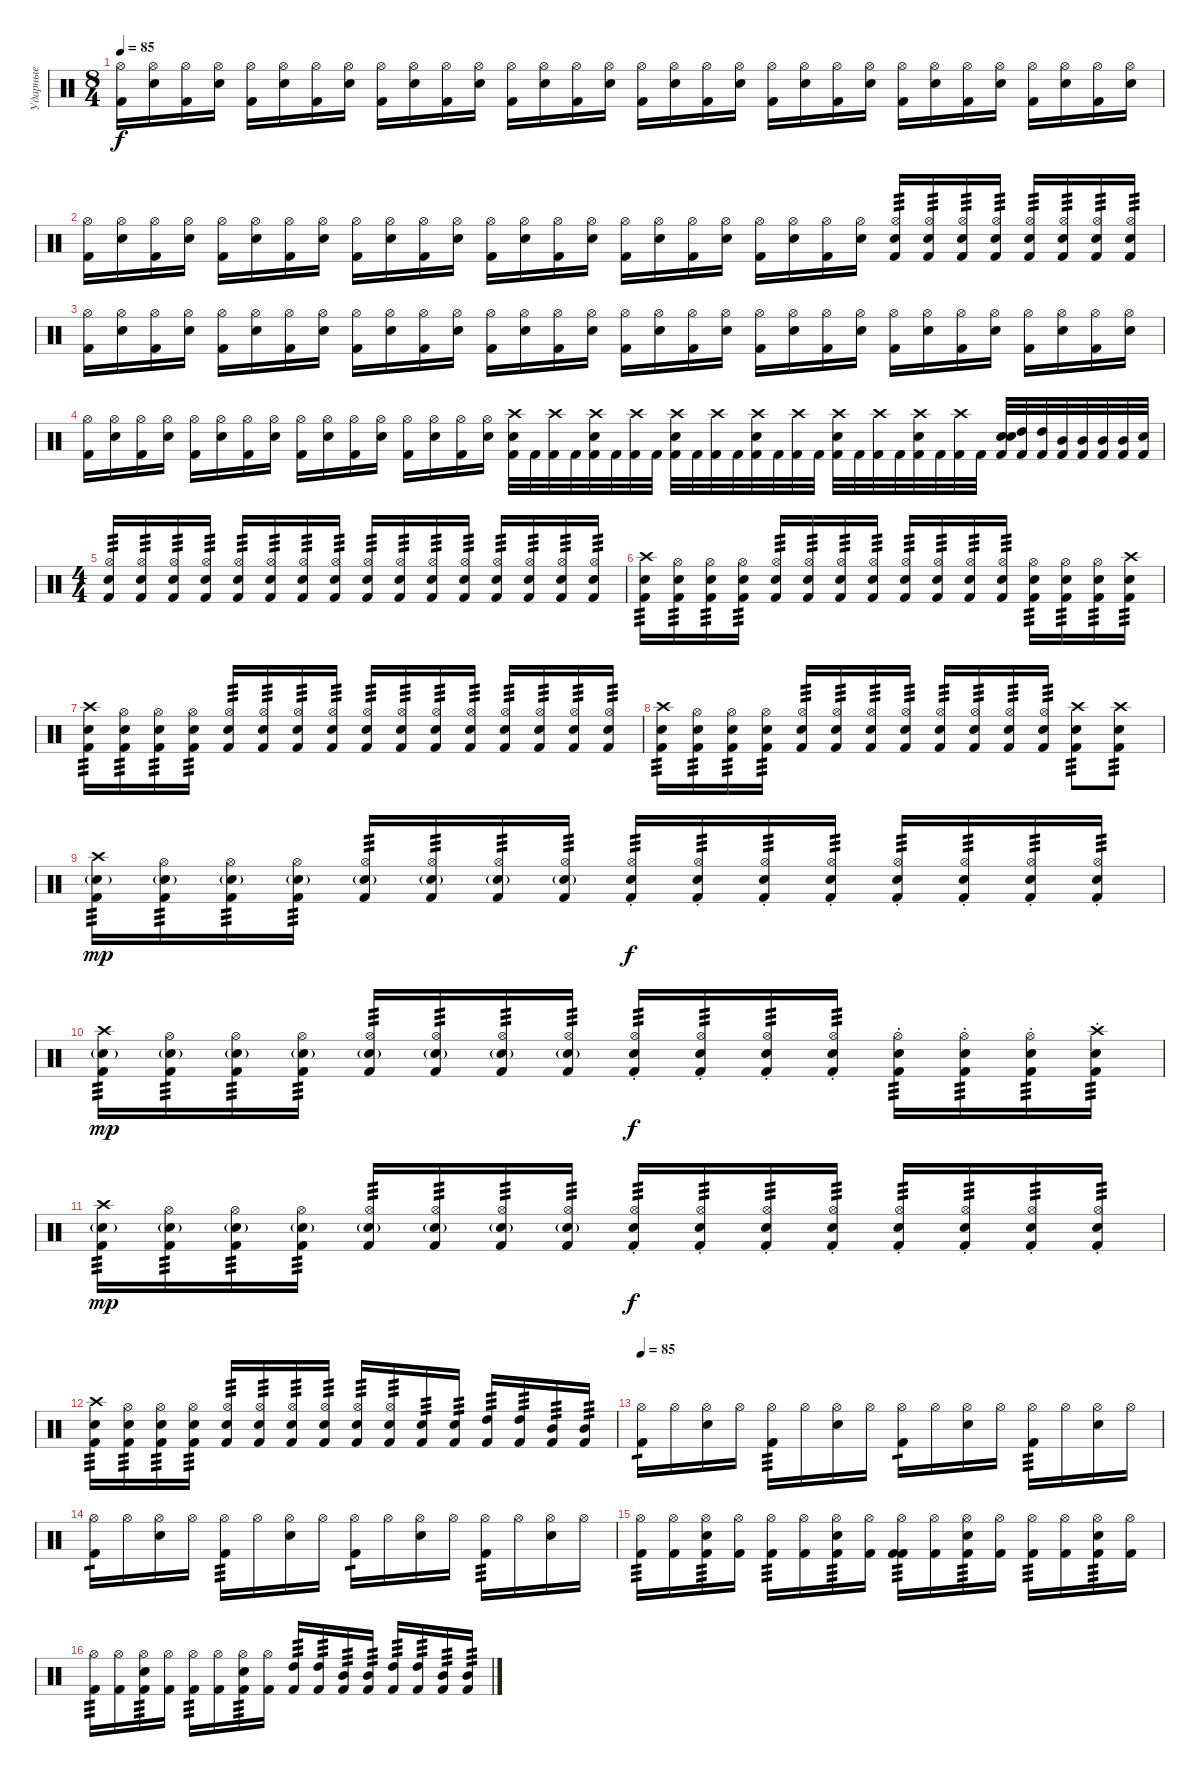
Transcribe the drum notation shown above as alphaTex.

\track ("Ударные" "Ударные") {instrument percussion}
\staff {score}
\articulation defaults
\ts (8 4)
\tempo 85
\clef neutral
\ks c
("Kick (hit) 2" "Hi-Hat (open)").16{dy f} ("Snare (hit) 2" "Hi-Hat (open)").16 ("Kick (hit) 2" "Hi-Hat (open)").16 ("Snare (hit) 2" "Hi-Hat (open)").16 ("Kick (hit) 2" "Hi-Hat (open)").16 ("Snare (hit) 2" "Hi-Hat (open)").16 ("Kick (hit) 2" "Hi-Hat (open)").16 ("Snare (hit) 2" "Hi-Hat (open)").16 ("Kick (hit) 2" "Hi-Hat (open)").16 ("Snare (hit) 2" "Hi-Hat (open)").16 ("Kick (hit) 2" "Hi-Hat (open)").16 ("Snare (hit) 2" "Hi-Hat (open)").16 ("Kick (hit) 2" "Hi-Hat (open)").16 ("Snare (hit) 2" "Hi-Hat (open)").16 ("Kick (hit) 2" "Hi-Hat (open)").16 ("Snare (hit) 2" "Hi-Hat (open)").16 ("Kick (hit) 2" "Hi-Hat (open)").16 ("Snare (hit) 2" "Hi-Hat (open)").16 ("Kick (hit) 2" "Hi-Hat (open)").16 ("Snare (hit) 2" "Hi-Hat (open)").16 ("Kick (hit) 2" "Hi-Hat (open)").16 ("Snare (hit) 2" "Hi-Hat (open)").16 ("Kick (hit) 2" "Hi-Hat (open)").16 ("Snare (hit) 2" "Hi-Hat (open)").16 ("Kick (hit) 2" "Hi-Hat (open)").16 ("Snare (hit) 2" "Hi-Hat (open)").16 ("Kick (hit) 2" "Hi-Hat (open)").16 ("Snare (hit) 2" "Hi-Hat (open)").16 ("Kick (hit) 2" "Hi-Hat (open)").16 ("Snare (hit) 2" "Hi-Hat (open)").16 ("Kick (hit) 2" "Hi-Hat (open)").16 ("Snare (hit) 2" "Hi-Hat (open)").16 |
("Kick (hit) 2" "Hi-Hat (open)").16 ("Snare (hit) 2" "Hi-Hat (open)").16 ("Kick (hit) 2" "Hi-Hat (open)").16 ("Snare (hit) 2" "Hi-Hat (open)").16 ("Kick (hit) 2" "Hi-Hat (open)").16 ("Snare (hit) 2" "Hi-Hat (open)").16 ("Kick (hit) 2" "Hi-Hat (open)").16 ("Snare (hit) 2" "Hi-Hat (open)").16 ("Kick (hit) 2" "Hi-Hat (open)").16 ("Snare (hit) 2" "Hi-Hat (open)").16 ("Kick (hit) 2" "Hi-Hat (open)").16 ("Snare (hit) 2" "Hi-Hat (open)").16 ("Kick (hit) 2" "Hi-Hat (open)").16 ("Snare (hit) 2" "Hi-Hat (open)").16 ("Kick (hit) 2" "Hi-Hat (open)").16 ("Snare (hit) 2" "Hi-Hat (open)").16 ("Kick (hit) 2" "Hi-Hat (open)").16 ("Snare (hit) 2" "Hi-Hat (open)").16 ("Kick (hit) 2" "Hi-Hat (open)").16 ("Snare (hit) 2" "Hi-Hat (open)").16 ("Kick (hit) 2" "Hi-Hat (open)").16 ("Snare (hit) 2" "Hi-Hat (open)").16 ("Kick (hit) 2" "Hi-Hat (open)").16 ("Snare (hit) 2" "Hi-Hat (open)").16 ("Hi-Hat (open)" "Snare (hit) 2" "Kick (hit) 2").16{tp 3} ("Hi-Hat (open)" "Snare (hit) 2" "Kick (hit) 2").16{tp 3} ("Hi-Hat (open)" "Snare (hit) 2" "Kick (hit) 2").16{tp 3} ("Hi-Hat (open)" "Snare (hit) 2" "Kick (hit) 2").16{tp 3} ("Hi-Hat (open)" "Snare (hit) 2" "Kick (hit) 2").16{tp 3} ("Hi-Hat (open)" "Snare (hit) 2" "Kick (hit) 2").16{tp 3} ("Hi-Hat (open)" "Snare (hit) 2" "Kick (hit) 2").16{tp 3} ("Hi-Hat (open)" "Snare (hit) 2" "Kick (hit) 2").16{tp 3} |
("Kick (hit) 2" "Hi-Hat (open)").16 ("Snare (hit) 2" "Hi-Hat (open)").16 ("Kick (hit) 2" "Hi-Hat (open)").16 ("Snare (hit) 2" "Hi-Hat (open)").16 ("Kick (hit) 2" "Hi-Hat (open)").16 ("Snare (hit) 2" "Hi-Hat (open)").16 ("Kick (hit) 2" "Hi-Hat (open)").16 ("Snare (hit) 2" "Hi-Hat (open)").16 ("Kick (hit) 2" "Hi-Hat (open)").16 ("Snare (hit) 2" "Hi-Hat (open)").16 ("Kick (hit) 2" "Hi-Hat (open)").16 ("Snare (hit) 2" "Hi-Hat (open)").16 ("Kick (hit) 2" "Hi-Hat (open)").16 ("Snare (hit) 2" "Hi-Hat (open)").16 ("Kick (hit) 2" "Hi-Hat (open)").16 ("Snare (hit) 2" "Hi-Hat (open)").16 ("Kick (hit) 2" "Hi-Hat (open)").16 ("Snare (hit) 2" "Hi-Hat (open)").16 ("Kick (hit) 2" "Hi-Hat (open)").16 ("Snare (hit) 2" "Hi-Hat (open)").16 ("Kick (hit) 2" "Hi-Hat (open)").16 ("Snare (hit) 2" "Hi-Hat (open)").16 ("Kick (hit) 2" "Hi-Hat (open)").16 ("Snare (hit) 2" "Hi-Hat (open)").16 ("Kick (hit) 2" "Hi-Hat (open)").16 ("Snare (hit) 2" "Hi-Hat (open)").16 ("Kick (hit) 2" "Hi-Hat (open)").16 ("Snare (hit) 2" "Hi-Hat (open)").16 ("Kick (hit) 2" "Hi-Hat (open)").16 ("Snare (hit) 2" "Hi-Hat (open)").16 ("Kick (hit) 2" "Hi-Hat (open)").16 ("Snare (hit) 2" "Hi-Hat (open)").16 |
("Kick (hit) 2" "Hi-Hat (open)").16 ("Snare (hit) 2" "Hi-Hat (open)").16 ("Kick (hit) 2" "Hi-Hat (open)").16 ("Snare (hit) 2" "Hi-Hat (open)").16 ("Kick (hit) 2" "Hi-Hat (open)").16 ("Snare (hit) 2" "Hi-Hat (open)").16 ("Kick (hit) 2" "Hi-Hat (open)").16 ("Snare (hit) 2" "Hi-Hat (open)").16 ("Kick (hit) 2" "Hi-Hat (open)").16 ("Snare (hit) 2" "Hi-Hat (open)").16 ("Kick (hit) 2" "Hi-Hat (open)").16 ("Snare (hit) 2" "Hi-Hat (open)").16 ("Kick (hit) 2" "Hi-Hat (open)").16 ("Snare (hit) 2" "Hi-Hat (open)").16 ("Kick (hit) 2" "Hi-Hat (open)").16 ("Snare (hit) 2" "Hi-Hat (open)").16 ("Kick (hit) 2" "Snare (hit) 2" "Crash high (hit)").32 "Kick (hit) 2".32 ("Kick (hit) 2" "Crash high (hit)").32 "Kick (hit) 2".32 ("Kick (hit) 2" "Snare (hit) 2" "Crash high (hit)").32 "Kick (hit) 2".32 ("Kick (hit) 2" "Crash high (hit)").32 "Kick (hit) 2".32 ("Kick (hit) 2" "Snare (hit) 2" "Crash high (hit)").32 "Kick (hit) 2".32 ("Kick (hit) 2" "Crash high (hit)").32 "Kick (hit) 2".32 ("Kick (hit) 2" "Snare (hit) 2" "Crash high (hit)").32 "Kick (hit) 2".32 ("Kick (hit) 2" "Crash high (hit)").32 "Kick (hit) 2".32 ("Kick (hit) 2" "Snare (hit) 2" "Crash high (hit)").32 "Kick (hit) 2".32 ("Kick (hit) 2" "Crash high (hit)").32 "Kick (hit) 2".32 ("Kick (hit) 2" "Snare (hit) 2" "Crash high (hit)").32 "Kick (hit) 2".32 ("Kick (hit) 2" "Crash high (hit)").32 "Kick (hit) 2".32 ("Kick (hit) 2" "Snare (hit)" "Snare (hit) 2").32 ("High Tom (hit)" "Kick (hit) 2").32 ("High Tom (hit)" "Kick (hit) 2").32 ("Mid Tom (hit)" "Kick (hit) 2").32 ("Mid Tom (hit)" "Kick (hit) 2").32 ("Mid Tom (hit)" "Kick (hit) 2").32 ("Mid Tom (hit)" "Kick (hit) 2").32 ("Snare (hit) 2" "Kick (hit) 2").32 |
\ts (4 4)
("Hi-Hat (open)" "Snare (hit) 2" "Kick (hit) 2").16{tp 3} ("Hi-Hat (open)" "Snare (hit) 2" "Kick (hit) 2").16{tp 3} ("Hi-Hat (open)" "Snare (hit) 2" "Kick (hit) 2").16{tp 3} ("Hi-Hat (open)" "Snare (hit) 2" "Kick (hit) 2").16{tp 3} ("Hi-Hat (open)" "Snare (hit) 2" "Kick (hit) 2").16{tp 3} ("Hi-Hat (open)" "Snare (hit) 2" "Kick (hit) 2").16{tp 3} ("Hi-Hat (open)" "Snare (hit) 2" "Kick (hit) 2").16{tp 3} ("Hi-Hat (open)" "Snare (hit) 2" "Kick (hit) 2").16{tp 3} ("Hi-Hat (open)" "Snare (hit) 2" "Kick (hit) 2").16{tp 3} ("Hi-Hat (open)" "Snare (hit) 2" "Kick (hit) 2").16{tp 3} ("Hi-Hat (open)" "Snare (hit) 2" "Kick (hit) 2").16{tp 3} ("Hi-Hat (open)" "Snare (hit) 2" "Kick (hit) 2").16{tp 3} ("Hi-Hat (open)" "Snare (hit) 2" "Kick (hit) 2").16{tp 3} ("Hi-Hat (open)" "Snare (hit) 2" "Kick (hit) 2").16{tp 3} ("Hi-Hat (open)" "Snare (hit) 2" "Kick (hit) 2").16{tp 3} ("Hi-Hat (open)" "Snare (hit) 2" "Kick (hit) 2").16{tp 3} |
("Crash high (hit)" "Snare (hit) 2" "Kick (hit) 2").16{tp 3} ("Hi-Hat (open)" "Snare (hit) 2" "Kick (hit) 2").16{tp 3} ("Hi-Hat (open)" "Snare (hit) 2" "Kick (hit) 2").16{tp 3} ("Hi-Hat (open)" "Snare (hit) 2" "Kick (hit) 2").16{tp 3} ("Hi-Hat (open)" "Snare (hit) 2" "Kick (hit) 2").16{tp 3} ("Hi-Hat (open)" "Snare (hit) 2" "Kick (hit) 2").16{tp 3} ("Hi-Hat (open)" "Snare (hit) 2" "Kick (hit) 2").16{tp 3} ("Hi-Hat (open)" "Snare (hit) 2" "Kick (hit) 2").16{tp 3} ("Hi-Hat (open)" "Snare (hit) 2" "Kick (hit) 2").16{tp 3} ("Hi-Hat (open)" "Snare (hit) 2" "Kick (hit) 2").16{tp 3} ("Hi-Hat (open)" "Snare (hit) 2" "Kick (hit) 2").16{tp 3} ("Hi-Hat (open)" "Snare (hit) 2" "Kick (hit) 2").16{tp 3} ("Hi-Hat (open)" "Snare (hit) 2" "Kick (hit) 2").16{tp 3} ("Hi-Hat (open)" "Snare (hit) 2" "Kick (hit) 2").16{tp 3} ("Hi-Hat (open)" "Snare (hit) 2" "Kick (hit) 2").16{tp 3} ("Crash high (hit)" "Snare (hit) 2" "Kick (hit) 2").16{tp 3} |
("Crash high (hit)" "Snare (hit) 2" "Kick (hit) 2").16{tp 3} ("Hi-Hat (open)" "Snare (hit) 2" "Kick (hit) 2").16{tp 3} ("Hi-Hat (open)" "Snare (hit) 2" "Kick (hit) 2").16{tp 3} ("Hi-Hat (open)" "Snare (hit) 2" "Kick (hit) 2").16{tp 3} ("Hi-Hat (open)" "Snare (hit) 2" "Kick (hit) 2").16{tp 3} ("Hi-Hat (open)" "Snare (hit) 2" "Kick (hit) 2").16{tp 3} ("Hi-Hat (open)" "Snare (hit) 2" "Kick (hit) 2").16{tp 3} ("Hi-Hat (open)" "Snare (hit) 2" "Kick (hit) 2").16{tp 3} ("Hi-Hat (open)" "Snare (hit) 2" "Kick (hit) 2").16{tp 3} ("Hi-Hat (open)" "Snare (hit) 2" "Kick (hit) 2").16{tp 3} ("Hi-Hat (open)" "Snare (hit) 2" "Kick (hit) 2").16{tp 3} ("Hi-Hat (open)" "Snare (hit) 2" "Kick (hit) 2").16{tp 3} ("Hi-Hat (open)" "Snare (hit) 2" "Kick (hit) 2").16{tp 3} ("Hi-Hat (open)" "Snare (hit) 2" "Kick (hit) 2").16{tp 3} ("Hi-Hat (open)" "Snare (hit) 2" "Kick (hit) 2").16{tp 3} ("Hi-Hat (open)" "Snare (hit) 2" "Kick (hit) 2").16{tp 3} |
("Crash high (hit)" "Snare (hit) 2" "Kick (hit) 2").16{tp 3} ("Hi-Hat (open)" "Snare (hit) 2" "Kick (hit) 2").16{tp 3} ("Hi-Hat (open)" "Snare (hit) 2" "Kick (hit) 2").16{tp 3} ("Hi-Hat (open)" "Snare (hit) 2" "Kick (hit) 2").16{tp 3} ("Hi-Hat (open)" "Snare (hit) 2" "Kick (hit) 2").16{tp 3} ("Hi-Hat (open)" "Snare (hit) 2" "Kick (hit) 2").16{tp 3} ("Hi-Hat (open)" "Snare (hit) 2" "Kick (hit) 2").16{tp 3} ("Hi-Hat (open)" "Snare (hit) 2" "Kick (hit) 2").16{tp 3} ("Hi-Hat (open)" "Snare (hit) 2" "Kick (hit) 2").16{tp 3} ("Hi-Hat (open)" "Snare (hit) 2" "Kick (hit) 2").16{tp 3} ("Hi-Hat (open)" "Snare (hit) 2" "Kick (hit) 2").16{tp 3} ("Hi-Hat (open)" "Snare (hit) 2" "Kick (hit) 2").16{tp 3} ("Crash high (hit)" "Snare (hit) 2" "Kick (hit) 2").8{tp 3} ("Crash high (hit)" "Snare (hit) 2" "Kick (hit) 2").8{tp 3} |
("Crash high (hit)" "Snare (hit) 2"{g} "Kick (hit) 2").16{tp 3 dy mp} ("Hi-Hat (open)" "Snare (hit) 2"{g} "Kick (hit) 2").16{tp 3} ("Hi-Hat (open)" "Snare (hit) 2"{g} "Kick (hit) 2").16{tp 3} ("Hi-Hat (open)" "Snare (hit) 2"{g} "Kick (hit) 2").16{tp 3} ("Hi-Hat (open)" "Snare (hit) 2"{g} "Kick (hit) 2").16{tp 3} ("Hi-Hat (open)" "Snare (hit) 2"{g} "Kick (hit) 2").16{tp 3} ("Hi-Hat (open)" "Snare (hit) 2"{g} "Kick (hit) 2").16{tp 3} ("Hi-Hat (open)" "Snare (hit) 2"{g} "Kick (hit) 2").16{tp 3} ("Hi-Hat (open)" "Snare (hit) 2"{st} "Kick (hit) 2").16{tp 3 dy f} ("Hi-Hat (open)" "Snare (hit) 2"{st} "Kick (hit) 2").16{tp 3} ("Hi-Hat (open)" "Snare (hit) 2"{st} "Kick (hit) 2").16{tp 3} ("Hi-Hat (open)" "Snare (hit) 2"{st} "Kick (hit) 2").16{tp 3} ("Hi-Hat (open)" "Snare (hit) 2"{st} "Kick (hit) 2").16{tp 3} ("Hi-Hat (open)" "Snare (hit) 2"{st} "Kick (hit) 2").16{tp 3} ("Hi-Hat (open)" "Snare (hit) 2"{st} "Kick (hit) 2").16{tp 3} ("Hi-Hat (open)" "Snare (hit) 2"{st} "Kick (hit) 2").16{tp 3} |
("Crash high (hit)" "Snare (hit) 2"{g} "Kick (hit) 2").16{tp 3 dy mp} ("Hi-Hat (open)" "Snare (hit) 2"{g} "Kick (hit) 2").16{tp 3} ("Hi-Hat (open)" "Snare (hit) 2"{g} "Kick (hit) 2").16{tp 3} ("Hi-Hat (open)" "Snare (hit) 2"{g} "Kick (hit) 2").16{tp 3} ("Hi-Hat (open)" "Snare (hit) 2"{g} "Kick (hit) 2").16{tp 3} ("Hi-Hat (open)" "Snare (hit) 2"{g} "Kick (hit) 2").16{tp 3} ("Hi-Hat (open)" "Snare (hit) 2"{g} "Kick (hit) 2").16{tp 3} ("Hi-Hat (open)" "Snare (hit) 2"{g} "Kick (hit) 2").16{tp 3} ("Hi-Hat (open)" "Snare (hit) 2"{st} "Kick (hit) 2").16{tp 3 dy f} ("Hi-Hat (open)" "Snare (hit) 2"{st} "Kick (hit) 2").16{tp 3} ("Hi-Hat (open)" "Snare (hit) 2"{st} "Kick (hit) 2").16{tp 3} ("Hi-Hat (open)" "Snare (hit) 2"{st} "Kick (hit) 2").16{tp 3} ("Hi-Hat (open)" "Snare (hit) 2"{st} "Kick (hit) 2").16{tp 3} ("Hi-Hat (open)" "Snare (hit) 2"{st} "Kick (hit) 2").16{tp 3} ("Hi-Hat (open)" "Snare (hit) 2"{st} "Kick (hit) 2").16{tp 3} ("Crash high (hit)" "Snare (hit) 2"{st} "Kick (hit) 2").16{tp 3} |
("Crash high (hit)" "Snare (hit) 2"{g} "Kick (hit) 2").16{tp 3 dy mp} ("Hi-Hat (open)" "Snare (hit) 2"{g} "Kick (hit) 2").16{tp 3} ("Hi-Hat (open)" "Snare (hit) 2"{g} "Kick (hit) 2").16{tp 3} ("Hi-Hat (open)" "Snare (hit) 2"{g} "Kick (hit) 2").16{tp 3} ("Hi-Hat (open)" "Snare (hit) 2"{g} "Kick (hit) 2").16{tp 3} ("Hi-Hat (open)" "Snare (hit) 2"{g} "Kick (hit) 2").16{tp 3} ("Hi-Hat (open)" "Snare (hit) 2"{g} "Kick (hit) 2").16{tp 3} ("Hi-Hat (open)" "Snare (hit) 2"{g} "Kick (hit) 2").16{tp 3} ("Hi-Hat (open)" "Snare (hit) 2"{st} "Kick (hit) 2").16{tp 3 dy f} ("Hi-Hat (open)" "Snare (hit) 2"{st} "Kick (hit) 2").16{tp 3} ("Hi-Hat (open)" "Snare (hit) 2"{st} "Kick (hit) 2").16{tp 3} ("Hi-Hat (open)" "Snare (hit) 2"{st} "Kick (hit) 2").16{tp 3} ("Hi-Hat (open)" "Snare (hit) 2"{st} "Kick (hit) 2").16{tp 3} ("Hi-Hat (open)" "Snare (hit) 2"{st} "Kick (hit) 2").16{tp 3} ("Hi-Hat (open)" "Snare (hit) 2"{st} "Kick (hit) 2").16{tp 3} ("Hi-Hat (open)" "Snare (hit) 2"{st} "Kick (hit) 2").16{tp 3} |
("Crash high (hit)" "Snare (hit) 2" "Kick (hit) 2").16{tp 3} ("Hi-Hat (open)" "Snare (hit) 2" "Kick (hit) 2").16{tp 3} ("Hi-Hat (open)" "Snare (hit) 2" "Kick (hit) 2").16{tp 3} ("Hi-Hat (open)" "Snare (hit) 2" "Kick (hit) 2").16{tp 3} ("Hi-Hat (open)" "Snare (hit) 2" "Kick (hit) 2").16{tp 3} ("Hi-Hat (open)" "Snare (hit) 2" "Kick (hit) 2").16{tp 3} ("Hi-Hat (open)" "Snare (hit) 2" "Kick (hit) 2").16{tp 3} ("Hi-Hat (open)" "Snare (hit) 2" "Kick (hit) 2").16{tp 3} ("Hi-Hat (open)" "Snare (hit) 2" "Kick (hit) 2").16{tp 3} ("Hi-Hat (open)" "Snare (hit) 2" "Kick (hit) 2").16{tp 3} ("Snare (hit) 2" "Kick (hit) 2").16{tp 3} ("Snare (hit) 2" "Kick (hit) 2").16{tp 3} ("High Tom (hit)" "Kick (hit) 2").16{tp 3} ("High Tom (hit)" "Kick (hit) 2").16{tp 3} ("Mid Tom (hit)" "Kick (hit) 2").16{tp 3} ("Mid Tom (hit)" "Kick (hit) 2").16{tp 3} |
\tempo 85
("Kick (hit) 2" "Hi-Hat (open)").16{tp 1} "Hi-Hat (open)".16 ("Snare (hit) 2" "Hi-Hat (open)").16 "Hi-Hat (open)".16 ("Kick (hit) 2" "Hi-Hat (open)").16{tp 3} "Hi-Hat (open)".16 ("Snare (hit) 2" "Hi-Hat (open)").16 "Hi-Hat (open)".16 ("Kick (hit) 2" "Hi-Hat (open)").16{tp 1} "Hi-Hat (open)".16 ("Snare (hit) 2" "Hi-Hat (open)").16 "Hi-Hat (open)".16 ("Kick (hit) 2" "Hi-Hat (open)").16{tp 3} "Hi-Hat (open)".16 ("Snare (hit) 2" "Hi-Hat (open)").16 "Hi-Hat (open)".16 |
("Kick (hit) 2" "Hi-Hat (open)").16{tp 1} "Hi-Hat (open)".16 ("Snare (hit) 2" "Hi-Hat (open)").16 "Hi-Hat (open)".16 ("Kick (hit) 2" "Hi-Hat (open)").16{tp 3} "Hi-Hat (open)".16 ("Snare (hit) 2" "Hi-Hat (open)").16 "Hi-Hat (open)".16 ("Kick (hit) 2" "Hi-Hat (open)").16{tp 1} "Hi-Hat (open)".16 ("Snare (hit) 2" "Hi-Hat (open)").16 "Hi-Hat (open)".16 ("Kick (hit) 2" "Hi-Hat (open)").16{tp 3} "Hi-Hat (open)".16 ("Snare (hit) 2" "Hi-Hat (open)").16 "Hi-Hat (open)".16 |
("Kick (hit) 2" "Hi-Hat (open)").16{tp 3} ("Hi-Hat (open)" "Kick (hit) 2").16 ("Snare (hit) 2" "Hi-Hat (open)" "Kick (hit) 2").16{tp 3} ("Hi-Hat (open)" "Kick (hit) 2").16 ("Kick (hit) 2" "Hi-Hat (open)").16{tp 3} ("Hi-Hat (open)" "Kick (hit) 2").16 ("Snare (hit) 2" "Hi-Hat (open)" "Kick (hit) 2").16{tp 3} ("Hi-Hat (open)" "Kick (hit) 2").16 ("Kick (hit) 2" "Hi-Hat (open)" "Kick (hit) 2").16{tp 3} ("Hi-Hat (open)" "Kick (hit) 2").16 ("Snare (hit) 2" "Hi-Hat (open)" "Kick (hit) 2").16{tp 3} ("Hi-Hat (open)" "Kick (hit) 2").16 ("Kick (hit) 2" "Hi-Hat (open)").16{tp 3} ("Hi-Hat (open)" "Kick (hit) 2").16 ("Snare (hit) 2" "Hi-Hat (open)" "Kick (hit) 2").16{tp 3} ("Hi-Hat (open)" "Kick (hit) 2").16 |
("Kick (hit) 2" "Hi-Hat (open)").16{tp 3} ("Hi-Hat (open)" "Kick (hit) 2").16 ("Snare (hit) 2" "Hi-Hat (open)" "Kick (hit) 2").16{tp 3} ("Hi-Hat (open)" "Kick (hit) 2").16 ("Kick (hit) 2" "Hi-Hat (open)").16{tp 3} ("Hi-Hat (open)" "Kick (hit) 2").16 ("Snare (hit) 2" "Hi-Hat (open)" "Kick (hit) 2").16{tp 3} ("Hi-Hat (open)" "Kick (hit) 2").16 ("High Tom (hit)" "Kick (hit) 2").16{tp 3} ("High Tom (hit)" "Kick (hit) 2").16{tp 3} ("Mid Tom (hit)" "Kick (hit) 2").16{tp 3} ("Mid Tom (hit)" "Kick (hit) 2").16{tp 3} ("High Tom (hit)" "Kick (hit) 2").16{tp 3} ("High Tom (hit)" "Kick (hit) 2").16{tp 3} ("Mid Tom (hit)" "Kick (hit) 2").16{tp 3} ("Mid Tom (hit)" "Kick (hit) 2").16{tp 3}
